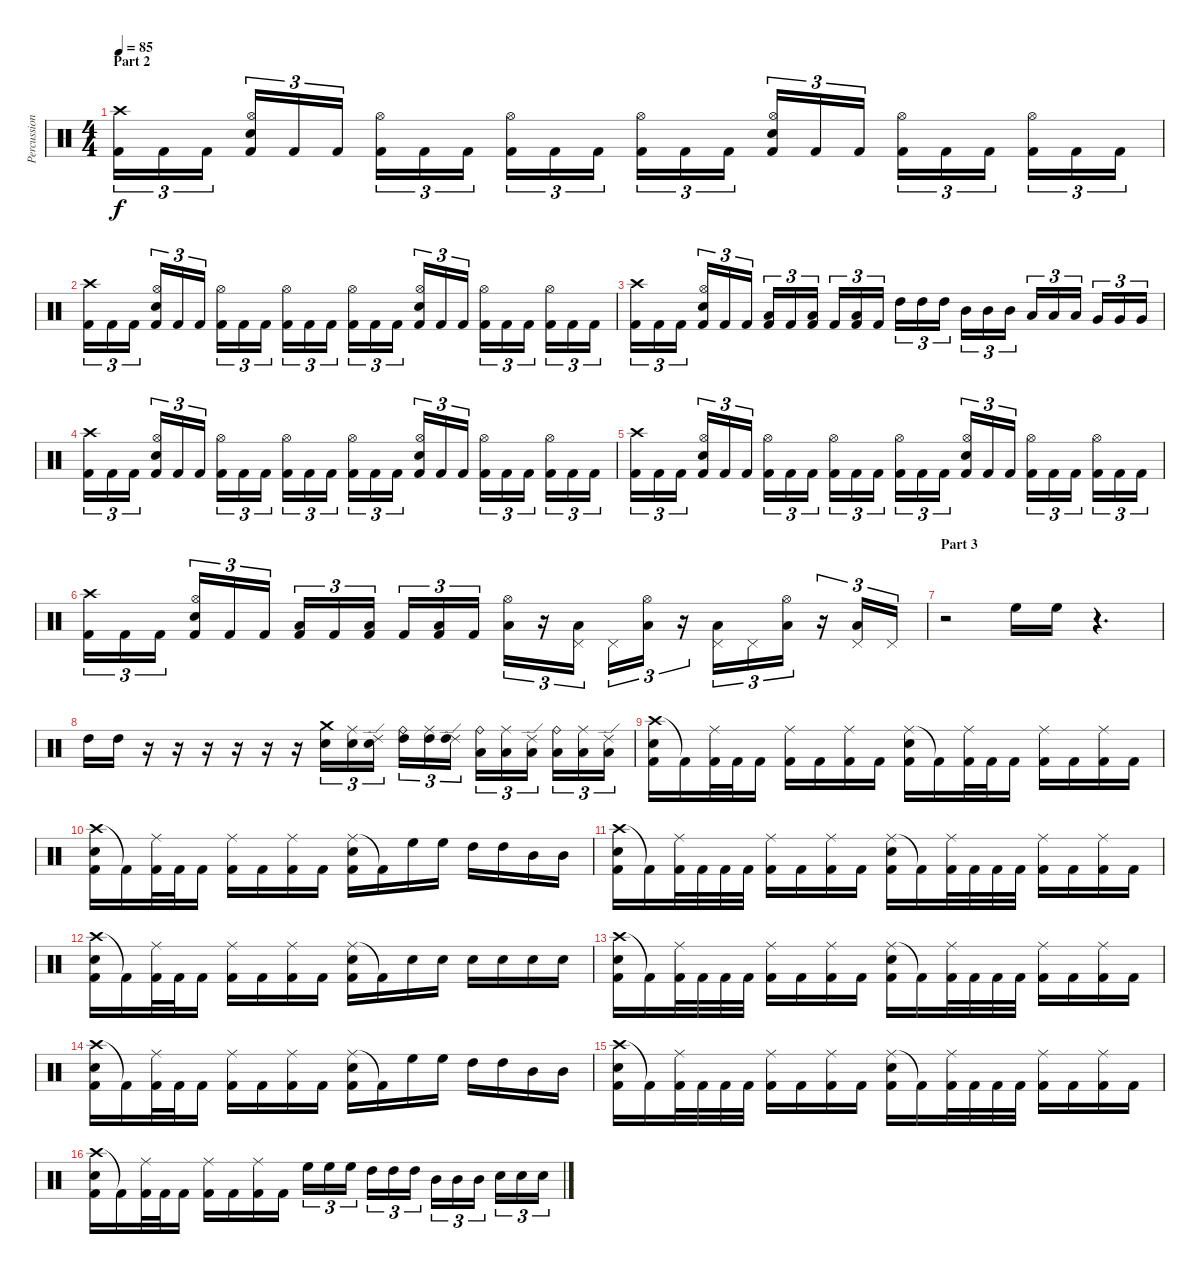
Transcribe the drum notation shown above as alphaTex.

\track ("Percussion" "Percussion") {instrument percussion}
\staff {score}
\articulation defaults
\ts (4 4)
\section ("" "Part 2")
\tempo 85
\clef neutral
\ks c
("Crash high (hit)" "Kick (hit) 2").16{tu (3 2) dy f} "Kick (hit) 2".16{tu (3 2)} "Kick (hit) 2".16{tu (3 2)} ("Hi-Hat (open)" "Electric Snare (hit)" "Kick (hit) 2").16{tu (3 2)} "Kick (hit) 2".16{tu (3 2)} "Kick (hit) 2".16{tu (3 2)} ("Hi-Hat (open)" "Kick (hit) 2").16{tu (3 2)} "Kick (hit) 2".16{tu (3 2)} "Kick (hit) 2".16{tu (3 2)} ("Hi-Hat (open)" "Kick (hit) 2").16{tu (3 2)} "Kick (hit) 2".16{tu (3 2)} "Kick (hit) 2".16{tu (3 2)} ("Hi-Hat (open)" "Kick (hit) 2").16{tu (3 2)} "Kick (hit) 2".16{tu (3 2)} "Kick (hit) 2".16{tu (3 2)} ("Hi-Hat (open)" "Electric Snare (hit)" "Kick (hit) 2").16{tu (3 2)} "Kick (hit) 2".16{tu (3 2)} "Kick (hit) 2".16{tu (3 2)} ("Hi-Hat (open)" "Kick (hit) 2").16{tu (3 2)} "Kick (hit) 2".16{tu (3 2)} "Kick (hit) 2".16{tu (3 2)} ("Hi-Hat (open)" "Kick (hit) 2").16{tu (3 2)} "Kick (hit) 2".16{tu (3 2)} "Kick (hit) 2".16{tu (3 2)} |
("Crash high (hit)" "Kick (hit) 2").16{tu (3 2)} "Kick (hit) 2".16{tu (3 2)} "Kick (hit) 2".16{tu (3 2)} ("Hi-Hat (open)" "Electric Snare (hit)" "Kick (hit) 2").16{tu (3 2)} "Kick (hit) 2".16{tu (3 2)} "Kick (hit) 2".16{tu (3 2)} ("Hi-Hat (open)" "Kick (hit) 2").16{tu (3 2)} "Kick (hit) 2".16{tu (3 2)} "Kick (hit) 2".16{tu (3 2)} ("Hi-Hat (open)" "Kick (hit) 2").16{tu (3 2)} "Kick (hit) 2".16{tu (3 2)} "Kick (hit) 2".16{tu (3 2)} ("Hi-Hat (open)" "Kick (hit) 2").16{tu (3 2)} "Kick (hit) 2".16{tu (3 2)} "Kick (hit) 2".16{tu (3 2)} ("Hi-Hat (open)" "Electric Snare (hit)" "Kick (hit) 2").16{tu (3 2)} "Kick (hit) 2".16{tu (3 2)} "Kick (hit) 2".16{tu (3 2)} ("Hi-Hat (open)" "Kick (hit) 2").16{tu (3 2)} "Kick (hit) 2".16{tu (3 2)} "Kick (hit) 2".16{tu (3 2)} ("Hi-Hat (open)" "Kick (hit) 2").16{tu (3 2)} "Kick (hit) 2".16{tu (3 2)} "Kick (hit) 2".16{tu (3 2)} |
("Crash high (hit)" "Kick (hit) 2").16{tu (3 2)} "Kick (hit) 2".16{tu (3 2)} "Kick (hit) 2".16{tu (3 2)} ("Hi-Hat (open)" "Electric Snare (hit)" "Kick (hit) 2").16{tu (3 2)} "Kick (hit) 2".16{tu (3 2)} "Kick (hit) 2".16{tu (3 2)} ("Low Tom (hit)" "Kick (hit) 2").16{tu (3 2)} "Kick (hit) 2".16{tu (3 2)} ("Low Tom (hit)" "Kick (hit) 2").16{tu (3 2)} "Kick (hit) 2".16{tu (3 2)} ("Low Tom (hit)" "Kick (hit) 2").16{tu (3 2)} "Kick (hit) 2".16{tu (3 2)} "High Tom (hit)".16{tu (3 2)} "High Tom (hit)".16{tu (3 2)} "High Tom (hit)".16{tu (3 2)} "Mid Tom (hit)".16{tu (3 2)} "Mid Tom (hit)".16{tu (3 2)} "Mid Tom (hit)".16{tu (3 2)} "Low Tom (hit)".16{tu (3 2)} "Low Tom (hit)".16{tu (3 2)} "Low Tom (hit)".16{tu (3 2)} "Very Low Tom (hit)".16{tu (3 2)} "Very Low Tom (hit)".16{tu (3 2)} "Very Low Tom (hit)".16{tu (3 2)} |
("Crash high (hit)" "Kick (hit) 2").16{tu (3 2)} "Kick (hit) 2".16{tu (3 2)} "Kick (hit) 2".16{tu (3 2)} ("Hi-Hat (open)" "Electric Snare (hit)" "Kick (hit) 2").16{tu (3 2)} "Kick (hit) 2".16{tu (3 2)} "Kick (hit) 2".16{tu (3 2)} ("Hi-Hat (open)" "Kick (hit) 2").16{tu (3 2)} "Kick (hit) 2".16{tu (3 2)} "Kick (hit) 2".16{tu (3 2)} ("Hi-Hat (open)" "Kick (hit) 2").16{tu (3 2)} "Kick (hit) 2".16{tu (3 2)} "Kick (hit) 2".16{tu (3 2)} ("Hi-Hat (open)" "Kick (hit) 2").16{tu (3 2)} "Kick (hit) 2".16{tu (3 2)} "Kick (hit) 2".16{tu (3 2)} ("Hi-Hat (open)" "Electric Snare (hit)" "Kick (hit) 2").16{tu (3 2)} "Kick (hit) 2".16{tu (3 2)} "Kick (hit) 2".16{tu (3 2)} ("Hi-Hat (open)" "Kick (hit) 2").16{tu (3 2)} "Kick (hit) 2".16{tu (3 2)} "Kick (hit) 2".16{tu (3 2)} ("Hi-Hat (open)" "Kick (hit) 2").16{tu (3 2)} "Kick (hit) 2".16{tu (3 2)} "Kick (hit) 2".16{tu (3 2)} |
("Crash high (hit)" "Kick (hit) 2").16{tu (3 2)} "Kick (hit) 2".16{tu (3 2)} "Kick (hit) 2".16{tu (3 2)} ("Hi-Hat (open)" "Electric Snare (hit)" "Kick (hit) 2").16{tu (3 2)} "Kick (hit) 2".16{tu (3 2)} "Kick (hit) 2".16{tu (3 2)} ("Hi-Hat (open)" "Kick (hit) 2").16{tu (3 2)} "Kick (hit) 2".16{tu (3 2)} "Kick (hit) 2".16{tu (3 2)} ("Hi-Hat (open)" "Kick (hit) 2").16{tu (3 2)} "Kick (hit) 2".16{tu (3 2)} "Kick (hit) 2".16{tu (3 2)} ("Hi-Hat (open)" "Kick (hit) 2").16{tu (3 2)} "Kick (hit) 2".16{tu (3 2)} "Kick (hit) 2".16{tu (3 2)} ("Hi-Hat (open)" "Electric Snare (hit)" "Kick (hit) 2").16{tu (3 2)} "Kick (hit) 2".16{tu (3 2)} "Kick (hit) 2".16{tu (3 2)} ("Hi-Hat (open)" "Kick (hit) 2").16{tu (3 2)} "Kick (hit) 2".16{tu (3 2)} "Kick (hit) 2".16{tu (3 2)} ("Hi-Hat (open)" "Kick (hit) 2").16{tu (3 2)} "Kick (hit) 2".16{tu (3 2)} "Kick (hit) 2".16{tu (3 2)} |
("Crash high (hit)" "Kick (hit) 2").16{tu (3 2)} "Kick (hit) 2".16{tu (3 2)} "Kick (hit) 2".16{tu (3 2)} ("Hi-Hat (open)" "Electric Snare (hit)" "Kick (hit) 2").16{tu (3 2)} "Kick (hit) 2".16{tu (3 2)} "Kick (hit) 2".16{tu (3 2)} ("Low Tom (hit)" "Kick (hit) 2").16{tu (3 2)} "Kick (hit) 2".16{tu (3 2)} ("Low Tom (hit)" "Kick (hit) 2").16{tu (3 2)} "Kick (hit) 2".16{tu (3 2)} ("Low Tom (hit)" "Kick (hit) 2").16{tu (3 2)} "Kick (hit) 2".16{tu (3 2)} ("Hi-Hat (open)" "Low Tom (hit)").16{tu (3 2)} r.16{tu (3 2)} ("Pedal Hi-Hat (hit)" "Low Floor Tom (hit)").16{tu (3 2)} "Pedal Hi-Hat (hit)".16{tu (3 2)} ("Hi-Hat (open)" "Low Tom (hit)").16{tu (3 2)} r.16{tu (3 2)} ("Pedal Hi-Hat (hit)" "Low Floor Tom (hit)").16{tu (3 2)} "Pedal Hi-Hat (hit)".16{tu (3 2)} ("Hi-Hat (open)" "Low Tom (hit)").16{tu (3 2)} r.16{tu (3 2)} ("Pedal Hi-Hat (hit)" "Low Floor Tom (hit)").16{tu (3 2)} "Pedal Hi-Hat (hit)".16{tu (3 2)} |
\section ("" "Part 3")
r.2 "High Floor Tom (hit)".16 "High Floor Tom (hit)".16 r.4{d} |
"High Tom (hit)".16 "High Tom (hit)".16 r.16 r.16 r.16 r.16 r.16 r.16 ("Crash medium (hit)" "Electric Snare (hit)").16{tu (3 2)} ("Ride (middle)" "Electric Snare (hit)").16{tu (3 2)} ("Ride (edge) 2" "Electric Snare (hit)").16{tu (3 2)} ("Ride (bell)" "High Tom (hit)").16{tu (3 2)} ("Ride (middle)" "High Tom (hit)").16{tu (3 2)} ("Ride (edge) 2" "High Tom (hit)").16{tu (3 2)} ("Ride (bell)" "Low Tom (hit)").16{tu (3 2)} ("Ride (middle)" "Low Tom (hit)").16{tu (3 2)} ("Ride (edge) 2" "Low Tom (hit)").16{tu (3 2)} ("Ride (bell)" "Low Floor Tom (hit)").16{tu (3 2)} ("Ride (middle)" "Low Floor Tom (hit)").16{tu (3 2)} ("Ride (edge) 2" "Low Floor Tom (hit)").16{tu (3 2)} |
("Crash high (hit)" "Electric Snare (hit)" "Kick (hit) 2").16 "Kick (hit) 2"{t}.16 ("Ride (middle)" "Kick (hit) 2").32 "Kick (hit) 2".32 "Kick (hit) 2".16 ("Ride (middle)" "Kick (hit) 2").16 "Kick (hit) 2".16 ("Ride (middle)" "Kick (hit) 2").16 "Kick (hit) 2".16 ("Ride (middle)" "Electric Snare (hit)" "Kick (hit) 2").16 "Kick (hit) 2"{t}.16 ("Ride (middle)" "Kick (hit) 2").32 "Kick (hit) 2".32 "Kick (hit) 2".16 ("Ride (middle)" "Kick (hit) 2").16 "Kick (hit) 2".16 ("Ride (middle)" "Kick (hit) 2").16 "Kick (hit) 2".16 |
("Crash high (hit)" "Electric Snare (hit)" "Kick (hit) 2").16 "Kick (hit) 2"{t}.16 ("Ride (middle)" "Kick (hit) 2").32 "Kick (hit) 2".32 "Kick (hit) 2".16 ("Ride (middle)" "Kick (hit) 2").16 "Kick (hit) 2".16 ("Ride (middle)" "Kick (hit) 2").16 "Kick (hit) 2".16 ("Ride (middle)" "Electric Snare (hit)" "Kick (hit) 2").16 "Kick (hit) 2"{t}.16 "High Floor Tom (hit)".16 "High Floor Tom (hit)".16 "High Tom (hit)".16 "High Tom (hit)".16 "Mid Tom (hit)".16 "Mid Tom (hit)".16 |
("Crash high (hit)" "Electric Snare (hit)" "Kick (hit) 2").16 "Kick (hit) 2"{t}.16 ("Ride (middle)" "Kick (hit) 2").32 "Kick (hit) 2".32 "Kick (hit) 2".32 "Kick (hit) 2".32 ("Ride (middle)" "Kick (hit) 2").16 "Kick (hit) 2".16 ("Ride (middle)" "Kick (hit) 2").16 "Kick (hit) 2".16 ("Ride (middle)" "Electric Snare (hit)" "Kick (hit) 2").16 "Kick (hit) 2"{t}.16 ("Ride (middle)" "Kick (hit) 2").32 "Kick (hit) 2".32 "Kick (hit) 2".32 "Kick (hit) 2".32 ("Ride (middle)" "Kick (hit) 2").16 "Kick (hit) 2".16 ("Ride (middle)" "Kick (hit) 2").16 "Kick (hit) 2".16 |
("Crash high (hit)" "Electric Snare (hit)" "Kick (hit) 2").16 "Kick (hit) 2"{t}.16 ("Ride (middle)" "Kick (hit) 2").32 "Kick (hit) 2".32 "Kick (hit) 2".16 ("Ride (middle)" "Kick (hit) 2").16 "Kick (hit) 2".16 ("Ride (middle)" "Kick (hit) 2").16 "Kick (hit) 2".16 ("Ride (middle)" "Electric Snare (hit)" "Kick (hit) 2").16 "Kick (hit) 2"{t}.16 "Electric Snare (hit)".16 "Electric Snare (hit)".16 "Electric Snare (hit)".16 "Electric Snare (hit)".16 "Electric Snare (hit)".16 "Electric Snare (hit)".16 |
("Crash high (hit)" "Electric Snare (hit)" "Kick (hit) 2").16 "Kick (hit) 2"{t}.16 ("Ride (middle)" "Kick (hit) 2").32 "Kick (hit) 2".32 "Kick (hit) 2".32 "Kick (hit) 2".32 ("Ride (middle)" "Kick (hit) 2").16 "Kick (hit) 2".16 ("Ride (middle)" "Kick (hit) 2").16 "Kick (hit) 2".16 ("Ride (middle)" "Electric Snare (hit)" "Kick (hit) 2").16 "Kick (hit) 2"{t}.16 ("Ride (middle)" "Kick (hit) 2").32 "Kick (hit) 2".32 "Kick (hit) 2".32 "Kick (hit) 2".32 ("Ride (middle)" "Kick (hit) 2").16 "Kick (hit) 2".16 ("Ride (middle)" "Kick (hit) 2").16 "Kick (hit) 2".16 |
("Crash high (hit)" "Electric Snare (hit)" "Kick (hit) 2").16 "Kick (hit) 2"{t}.16 ("Ride (middle)" "Kick (hit) 2").32 "Kick (hit) 2".32 "Kick (hit) 2".16 ("Ride (middle)" "Kick (hit) 2").16 "Kick (hit) 2".16 ("Ride (middle)" "Kick (hit) 2").16 "Kick (hit) 2".16 ("Ride (middle)" "Electric Snare (hit)" "Kick (hit) 2").16 "Kick (hit) 2"{t}.16 "High Floor Tom (hit)".16 "High Floor Tom (hit)".16 "High Tom (hit)".16 "High Tom (hit)".16 "Mid Tom (hit)".16 "Mid Tom (hit)".16 |
("Crash high (hit)" "Electric Snare (hit)" "Kick (hit) 2").16 "Kick (hit) 2"{t}.16 ("Ride (middle)" "Kick (hit) 2").32 "Kick (hit) 2".32 "Kick (hit) 2".32 "Kick (hit) 2".32 ("Ride (middle)" "Kick (hit) 2").16 "Kick (hit) 2".16 ("Ride (middle)" "Kick (hit) 2").16 "Kick (hit) 2".16 ("Ride (middle)" "Electric Snare (hit)" "Kick (hit) 2").16 "Kick (hit) 2"{t}.16 ("Ride (middle)" "Kick (hit) 2").32 "Kick (hit) 2".32 "Kick (hit) 2".32 "Kick (hit) 2".32 ("Ride (middle)" "Kick (hit) 2").16 "Kick (hit) 2".16 ("Ride (middle)" "Kick (hit) 2").16 "Kick (hit) 2".16 |
("Crash high (hit)" "Electric Snare (hit)" "Kick (hit) 2").16 "Kick (hit) 2"{t}.16 ("Ride (middle)" "Kick (hit) 2").32 "Kick (hit) 2".32 "Kick (hit) 2".16 ("Ride (middle)" "Kick (hit) 2").16 "Kick (hit) 2".16 ("Ride (middle)" "Kick (hit) 2").16 "Kick (hit) 2".16 "High Floor Tom (hit)".16{tu (3 2)} "High Floor Tom (hit)".16{tu (3 2)} "High Floor Tom (hit)".16{tu (3 2)} "High Tom (hit)".16{tu (3 2)} "High Tom (hit)".16{tu (3 2)} "High Tom (hit)".16{tu (3 2)} "Mid Tom (hit)".16{tu (3 2)} "Mid Tom (hit)".16{tu (3 2)} "Mid Tom (hit)".16{tu (3 2)} "Electric Snare (hit)".16{tu (3 2)} "Electric Snare (hit)".16{tu (3 2)} "Electric Snare (hit)".16{tu (3 2)}
